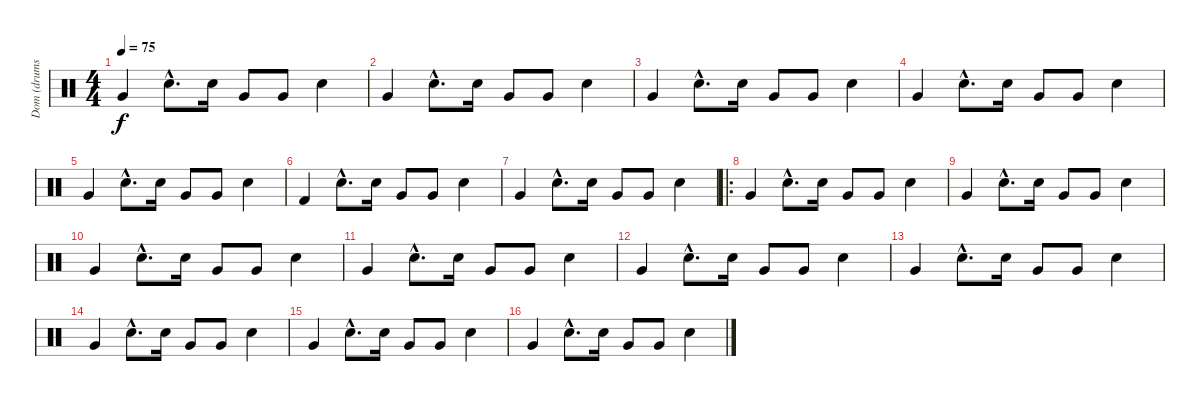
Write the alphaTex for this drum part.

\track ("Dom (drums)" "Dom (drums") {instrument percussion}
\staff {score}
\articulation defaults
\ts (4 4)
\tempo 75
\clef neutral
\ks c "Very Low Tom (hit)".4{dy f} "Snare (hit) 2"{hac}.8{d} "Snare (hit) 2".16 "Very Low Tom (hit)".8 "Very Low Tom (hit)".8 "Snare (hit) 2".4
|
"Very Low Tom (hit)".4 "Snare (hit) 2"{hac}.8{d} "Snare (hit) 2".16 "Very Low Tom (hit)".8 "Very Low Tom (hit)".8 "Snare (hit) 2".4 |
"Very Low Tom (hit)".4 "Snare (hit) 2"{hac}.8{d} "Snare (hit) 2".16 "Very Low Tom (hit)".8 "Very Low Tom (hit)".8 "Snare (hit) 2".4 |
"Very Low Tom (hit)".4 "Snare (hit) 2"{hac}.8{d} "Snare (hit) 2".16 "Very Low Tom (hit)".8 "Very Low Tom (hit)".8 "Snare (hit) 2".4 |
"Very Low Tom (hit)".4 "Snare (hit) 2"{hac}.8{d} "Snare (hit) 2".16 "Very Low Tom (hit)".8 "Very Low Tom (hit)".8 "Snare (hit) 2".4 |
"Kick (hit) 2".4 "Snare (hit) 2"{hac}.8{d} "Snare (hit) 2".16 "Very Low Tom (hit)".8 "Very Low Tom (hit)".8 "Snare (hit) 2".4 |
"Very Low Tom (hit)".4 "Snare (hit) 2"{hac}.8{d} "Snare (hit) 2".16 "Very Low Tom (hit)".8 "Very Low Tom (hit)".8 "Snare (hit) 2".4 |
\ro "Very Low Tom (hit)".4 "Snare (hit) 2"{hac}.8{d} "Snare (hit) 2".16 "Very Low Tom (hit)".8 "Very Low Tom (hit)".8 "Snare (hit) 2".4
|
"Very Low Tom (hit)".4 "Snare (hit) 2"{hac}.8{d} "Snare (hit) 2".16 "Very Low Tom (hit)".8 "Very Low Tom (hit)".8 "Snare (hit) 2".4 |
"Very Low Tom (hit)".4 "Snare (hit) 2"{hac}.8{d} "Snare (hit) 2".16 "Very Low Tom (hit)".8 "Very Low Tom (hit)".8 "Snare (hit) 2".4 |
"Very Low Tom (hit)".4 "Snare (hit) 2"{hac}.8{d} "Snare (hit) 2".16 "Very Low Tom (hit)".8 "Very Low Tom (hit)".8 "Snare (hit) 2".4 |
"Very Low Tom (hit)".4 "Snare (hit) 2"{hac}.8{d} "Snare (hit) 2".16 "Very Low Tom (hit)".8 "Very Low Tom (hit)".8 "Snare (hit) 2".4 |
"Very Low Tom (hit)".4 "Snare (hit) 2"{hac}.8{d} "Snare (hit) 2".16 "Very Low Tom (hit)".8 "Very Low Tom (hit)".8 "Snare (hit) 2".4 |
"Very Low Tom (hit)".4 "Snare (hit) 2"{hac}.8{d} "Snare (hit) 2".16 "Very Low Tom (hit)".8 "Very Low Tom (hit)".8 "Snare (hit) 2".4 |
"Very Low Tom (hit)".4 "Snare (hit) 2"{hac}.8{d} "Snare (hit) 2".16 "Very Low Tom (hit)".8 "Very Low Tom (hit)".8 "Snare (hit) 2".4 |
"Very Low Tom (hit)".4 "Snare (hit) 2"{hac}.8{d} "Snare (hit) 2".16 "Very Low Tom (hit)".8 "Very Low Tom (hit)".8 "Snare (hit) 2".4
